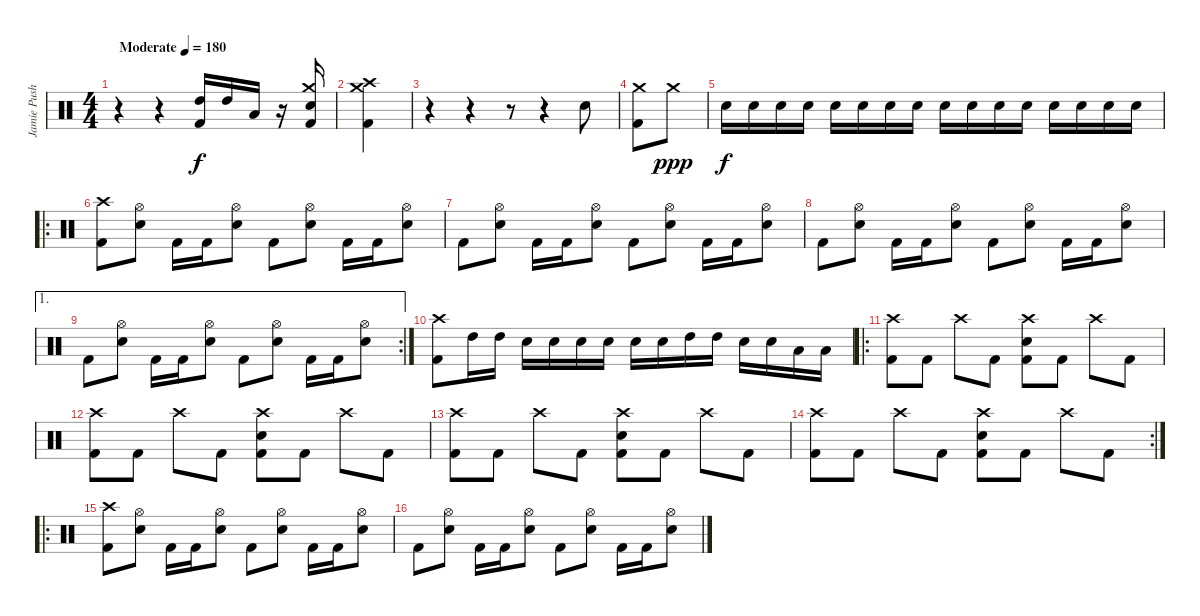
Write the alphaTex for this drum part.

\track ("Jamie Pushbutton" "Jamie Push") {instrument percussion}
\staff {score}
\articulation defaults
\ts (4 4)
\tempo (180 "Moderate")
\clef neutral
\ks c
r.4{dy f} r.4 ("High Tom (hit)" "Kick (hit) 2").16 "High Tom (hit)".16 "Low Tom (hit)".16 r.16 ("Crash medium (hit)" "Electric Snare (hit)" "Kick (hit) 2").16 |
("Crash medium (hit)" "Crash high (hit)" "Kick (hit) 2").4 |
r.4 r.4 r.8 r.4 "Electric Snare (hit)".8 |
("Crash medium (hit)" "Kick (hit) 2").8 "Crash medium (hit)".8{dy ppp} |
"Electric Snare (hit)".16{dy f} "Electric Snare (hit)".16 "Electric Snare (hit)".16 "Electric Snare (hit)".16 "Electric Snare (hit)".16 "Electric Snare (hit)".16 "Electric Snare (hit)".16 "Electric Snare (hit)".16 "Electric Snare (hit)".16 "Electric Snare (hit)".16 "Electric Snare (hit)".16 "Electric Snare (hit)".16 "Electric Snare (hit)".16 "Electric Snare (hit)".16 "Electric Snare (hit)".16 "Electric Snare (hit)".16 |
\ro
("Crash high (hit)" "Kick (hit) 2").8 ("Hi-Hat (open)" "Electric Snare (hit)").8 "Kick (hit) 2".16 "Kick (hit) 2".16 ("Hi-Hat (open)" "Electric Snare (hit)").8 "Kick (hit) 2".8 ("Hi-Hat (open)" "Electric Snare (hit)").8 "Kick (hit) 2".16 "Kick (hit) 2".16 ("Hi-Hat (open)" "Electric Snare (hit)").8 |
"Kick (hit) 2".8 ("Hi-Hat (open)" "Electric Snare (hit)").8 "Kick (hit) 2".16 "Kick (hit) 2".16 ("Hi-Hat (open)" "Electric Snare (hit)").8 "Kick (hit) 2".8 ("Hi-Hat (open)" "Electric Snare (hit)").8 "Kick (hit) 2".16 "Kick (hit) 2".16 ("Hi-Hat (open)" "Electric Snare (hit)").8 |
"Kick (hit) 2".8 ("Hi-Hat (open)" "Electric Snare (hit)").8 "Kick (hit) 2".16 "Kick (hit) 2".16 ("Hi-Hat (open)" "Electric Snare (hit)").8 "Kick (hit) 2".8 ("Hi-Hat (open)" "Electric Snare (hit)").8 "Kick (hit) 2".16 "Kick (hit) 2".16 ("Hi-Hat (open)" "Electric Snare (hit)").8 |
\ae 1
\rc 2 "Kick (hit) 2".8
("Hi-Hat (open)" "Electric Snare (hit)").8 "Kick (hit) 2".16 "Kick (hit) 2".16 ("Hi-Hat (open)" "Electric Snare (hit)").8 "Kick (hit) 2".8 ("Hi-Hat (open)" "Electric Snare (hit)").8 "Kick (hit) 2".16 "Kick (hit) 2".16 ("Hi-Hat (open)" "Electric Snare (hit)").8 |
("Crash high (hit)" "Kick (hit) 2").8 "High Tom (hit)".16 "High Tom (hit)".16 "Electric Snare (hit)".16 "Electric Snare (hit)".16 "Electric Snare (hit)".16 "Electric Snare (hit)".16 "Electric Snare (hit)".16 "Electric Snare (hit)".16 "High Tom (hit)".16 "High Tom (hit)".16 "Electric Snare (hit)".16 "Electric Snare (hit)".16 "Low Tom (hit)".16 "Low Tom (hit)".16 |
\ro
("Crash high (hit)" "Kick (hit) 2").8 "Kick (hit) 2".8 "Crash high (hit)".8 "Kick (hit) 2".8 ("Crash high (hit)" "Electric Snare (hit)" "Kick (hit) 2").8 "Kick (hit) 2".8 "Crash high (hit)".8 "Kick (hit) 2".8 |
("Crash high (hit)" "Kick (hit) 2").8 "Kick (hit) 2".8 "Crash high (hit)".8 "Kick (hit) 2".8 ("Crash high (hit)" "Electric Snare (hit)" "Kick (hit) 2").8 "Kick (hit) 2".8 "Crash high (hit)".8 "Kick (hit) 2".8 |
("Crash high (hit)" "Kick (hit) 2").8 "Kick (hit) 2".8 "Crash high (hit)".8 "Kick (hit) 2".8 ("Crash high (hit)" "Electric Snare (hit)" "Kick (hit) 2").8 "Kick (hit) 2".8 "Crash high (hit)".8 "Kick (hit) 2".8 |
\rc 2
("Crash high (hit)" "Kick (hit) 2").8 "Kick (hit) 2".8 "Crash high (hit)".8 "Kick (hit) 2".8 ("Crash high (hit)" "Electric Snare (hit)" "Kick (hit) 2").8 "Kick (hit) 2".8 "Crash high (hit)".8 "Kick (hit) 2".8 |
\ro
("Crash high (hit)" "Kick (hit) 2").8 ("Hi-Hat (open)" "Electric Snare (hit)").8 "Kick (hit) 2".16 "Kick (hit) 2".16 ("Hi-Hat (open)" "Electric Snare (hit)").8 "Kick (hit) 2".8 ("Hi-Hat (open)" "Electric Snare (hit)").8 "Kick (hit) 2".16 "Kick (hit) 2".16 ("Hi-Hat (open)" "Electric Snare (hit)").8 |
"Kick (hit) 2".8 ("Hi-Hat (open)" "Electric Snare (hit)").8 "Kick (hit) 2".16 "Kick (hit) 2".16 ("Hi-Hat (open)" "Electric Snare (hit)").8 "Kick (hit) 2".8 ("Hi-Hat (open)" "Electric Snare (hit)").8 "Kick (hit) 2".16 "Kick (hit) 2".16 ("Hi-Hat (open)" "Electric Snare (hit)").8
